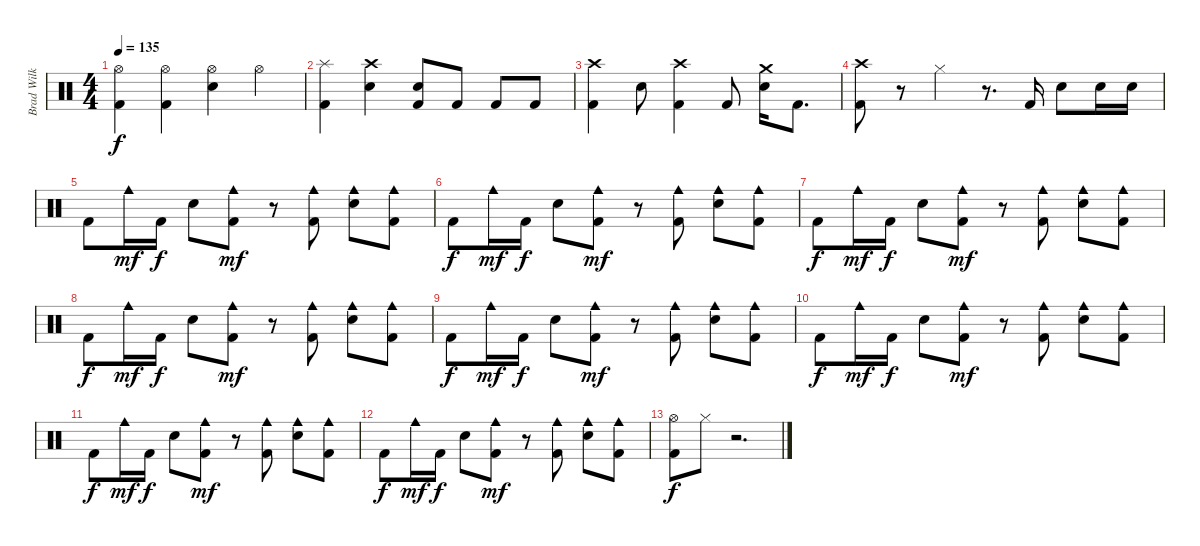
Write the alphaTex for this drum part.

\track ("Brad Wilk" "Brad Wilk") {instrument percussion}
\staff {score}
\articulation defaults
\ts (4 4)
\tempo 135
\clef neutral
\ks c
("Hi-Hat (open)" "Kick (hit) 2").4{dy f} ("Hi-Hat (open)" "Kick (hit) 2").4 ("Hi-Hat (open)" "Electric Snare (hit)").4 "Hi-Hat (open)".4 |
("Splash (hit)" "Kick (hit) 2").4 ("Crash high (hit)" "Electric Snare (hit)").4 ("Electric Snare (hit)" "Kick (hit) 2").8 "Kick (hit) 2".8 "Kick (hit) 2".8 "Kick (hit) 2".8 |
("Crash high (hit)" "Kick (hit) 2").4 "Electric Snare (hit)".8 ("Crash high (hit)" "Kick (hit) 2").4 "Kick (hit) 2".8 ("Crash medium (hit)" "Electric Snare (hit)").16 "Kick (hit) 2".8{d} |
("Crash high (hit)" "Kick (hit) 2").8 r.8 "Hi-Hat (closed)".4 r.8{d} "Kick (hit) 2".16 "Electric Snare (hit)".8 "Electric Snare (hit)".16 "Electric Snare (hit)".16 |
"Kick (hit) 2".8 "Cowbell medium (hit)".16{dy mf} "Kick (hit) 2".16{dy f} "Electric Snare (hit)".8 ("Cowbell medium (hit)" "Kick (hit) 2").8{dy mf} r.8 ("Cowbell medium (hit)" "Kick (hit) 2").8 ("Cowbell medium (hit)" "Electric Snare (hit)").8 ("Cowbell medium (hit)" "Kick (hit) 2").8 |
"Kick (hit) 2".8{dy f} "Cowbell medium (hit)".16{dy mf} "Kick (hit) 2".16{dy f} "Electric Snare (hit)".8 ("Cowbell medium (hit)" "Kick (hit) 2").8{dy mf} r.8 ("Cowbell medium (hit)" "Kick (hit) 2").8 ("Cowbell medium (hit)" "Electric Snare (hit)").8 ("Cowbell medium (hit)" "Kick (hit) 2").8 |
"Kick (hit) 2".8{dy f} "Cowbell medium (hit)".16{dy mf} "Kick (hit) 2".16{dy f} "Electric Snare (hit)".8 ("Cowbell medium (hit)" "Kick (hit) 2").8{dy mf} r.8 ("Cowbell medium (hit)" "Kick (hit) 2").8 ("Cowbell medium (hit)" "Electric Snare (hit)").8 ("Cowbell medium (hit)" "Kick (hit) 2").8 |
"Kick (hit) 2".8{dy f} "Cowbell medium (hit)".16{dy mf} "Kick (hit) 2".16{dy f} "Electric Snare (hit)".8 ("Cowbell medium (hit)" "Kick (hit) 2").8{dy mf} r.8 ("Cowbell medium (hit)" "Kick (hit) 2").8 ("Cowbell medium (hit)" "Electric Snare (hit)").8 ("Cowbell medium (hit)" "Kick (hit) 2").8 |
"Kick (hit) 2".8{dy f} "Cowbell medium (hit)".16{dy mf} "Kick (hit) 2".16{dy f} "Electric Snare (hit)".8 ("Cowbell medium (hit)" "Kick (hit) 2").8{dy mf} r.8 ("Cowbell medium (hit)" "Kick (hit) 2").8 ("Cowbell medium (hit)" "Electric Snare (hit)").8 ("Cowbell medium (hit)" "Kick (hit) 2").8 |
"Kick (hit) 2".8{dy f} "Cowbell medium (hit)".16{dy mf} "Kick (hit) 2".16{dy f} "Electric Snare (hit)".8 ("Cowbell medium (hit)" "Kick (hit) 2").8{dy mf} r.8 ("Cowbell medium (hit)" "Kick (hit) 2").8 ("Cowbell medium (hit)" "Electric Snare (hit)").8 ("Cowbell medium (hit)" "Kick (hit) 2").8 |
"Kick (hit) 2".8{dy f} "Cowbell medium (hit)".16{dy mf} "Kick (hit) 2".16{dy f} "Electric Snare (hit)".8 ("Cowbell medium (hit)" "Kick (hit) 2").8{dy mf} r.8 ("Cowbell medium (hit)" "Kick (hit) 2").8 ("Cowbell medium (hit)" "Electric Snare (hit)").8 ("Cowbell medium (hit)" "Kick (hit) 2").8 |
"Kick (hit) 2".8{dy f} "Cowbell medium (hit)".16{dy mf} "Kick (hit) 2".16{dy f} "Electric Snare (hit)".8 ("Cowbell medium (hit)" "Kick (hit) 2").8{dy mf} r.8 ("Cowbell medium (hit)" "Kick (hit) 2").8 ("Cowbell medium (hit)" "Electric Snare (hit)").8 ("Cowbell medium (hit)" "Kick (hit) 2").8 |
("Hi-Hat (open)" "Kick (hit) 2").8{dy f} "Hi-Hat (closed)".8 r.2{d}
